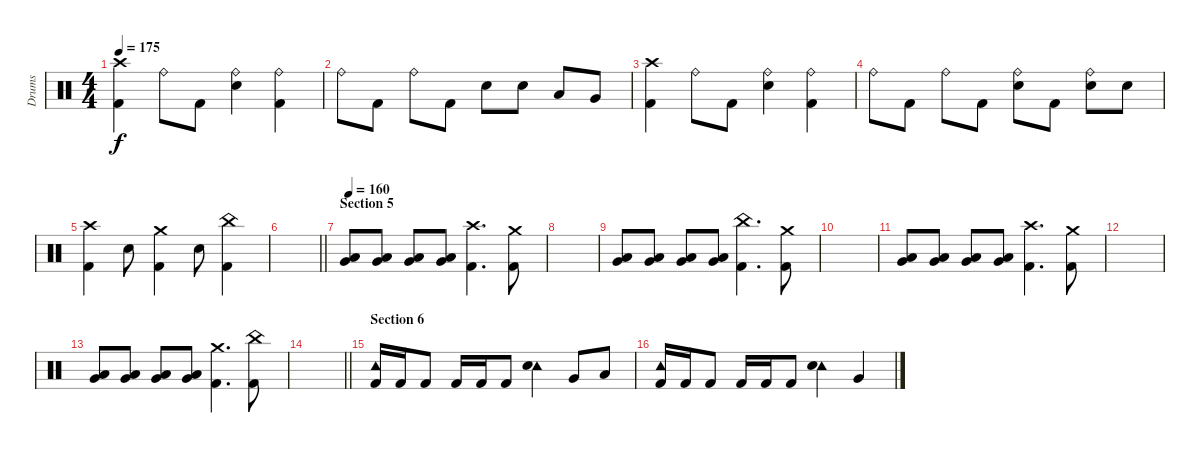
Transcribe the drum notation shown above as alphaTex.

\track ("Drums" "Drums") {instrument percussion}
\staff {score}
\articulation defaults
\ts (4 4)
\tempo 175
\clef neutral
\ks c
("Crash high (hit)" "Kick (hit) 2").4{dy f} "Ride (bell)".8 "Kick (hit) 2".8 ("Ride (bell)" "Snare (hit) 2").4 ("Ride (bell)" "Kick (hit) 2").4 |
"Ride (bell)".8 "Kick (hit) 2".8 "Ride (bell)".8 "Kick (hit) 2".8 "Snare (hit) 2".8 "Snare (hit) 2".8 "Low Tom (hit)".8 "Very Low Tom (hit)".8 |
("Crash high (hit)" "Kick (hit) 2").4 "Ride (bell)".8 "Kick (hit) 2".8 ("Ride (bell)" "Snare (hit) 2").4 ("Ride (bell)" "Kick (hit) 2").4 |
"Ride (bell)".8 "Kick (hit) 2".8 "Ride (bell)".8 "Kick (hit) 2".8 ("Ride (bell)" "Snare (hit) 2").8 "Kick (hit) 2".8 ("Ride (bell)" "Snare (hit) 2").8 "Snare (hit) 2".8 |
("Crash high (hit)" "Kick (hit) 2").4 "Snare (hit) 2".8 ("Crash medium (hit)" "Kick (hit) 2").4 "Snare (hit) 2".8 ("China (hit)" "Kick (hit) 2").4 |
\barLineRight lightlight
|
\section ("" "Section 5")
\tempo 160
("Very Low Tom (hit)" "Low Floor Tom (hit)").8 ("Very Low Tom (hit)" "Low Floor Tom (hit)").8 ("Very Low Tom (hit)" "Low Floor Tom (hit)").8 ("Very Low Tom (hit)" "Low Floor Tom (hit)").8 ("Crash high (hit)" "Kick (hit) 2").4{d} ("Crash medium (hit)" "Kick (hit) 2").8 |
|
("Very Low Tom (hit)" "Low Floor Tom (hit)").8 ("Very Low Tom (hit)" "Low Floor Tom (hit)").8 ("Very Low Tom (hit)" "Low Floor Tom (hit)").8 ("Very Low Tom (hit)" "Low Floor Tom (hit)").8 ("China (hit)" "Kick (hit) 2").4{d} ("Crash medium (hit)" "Kick (hit) 2").8 |
|
("Very Low Tom (hit)" "Low Floor Tom (hit)").8 ("Very Low Tom (hit)" "Low Floor Tom (hit)").8 ("Very Low Tom (hit)" "Low Floor Tom (hit)").8 ("Very Low Tom (hit)" "Low Floor Tom (hit)").8 ("Crash high (hit)" "Kick (hit) 2").4{d} ("Crash medium (hit)" "Kick (hit) 2").8 |
|
("Very Low Tom (hit)" "Low Floor Tom (hit)").8 ("Very Low Tom (hit)" "Low Floor Tom (hit)").8 ("Very Low Tom (hit)" "Low Floor Tom (hit)").8 ("Very Low Tom (hit)" "Low Floor Tom (hit)").8 ("Crash medium (hit)" "Kick (hit) 2").4{d} ("China (hit)" "Kick (hit) 2").8 |
\barLineRight lightlight
|
\section ("" "Section 6")
("Tambourine (hit)" "Kick (hit) 2").16 "Kick (hit) 2".16 "Kick (hit) 2".8 "Kick (hit) 2".16 "Kick (hit) 2".16 "Kick (hit) 2".8 ("Tambourine (hit)" "Snare (hit) 2").4 "Very Low Tom (hit)".8 "Low Tom (hit)".8 |
("Tambourine (hit)" "Kick (hit) 2").16 "Kick (hit) 2".16 "Kick (hit) 2".8 "Kick (hit) 2".16 "Kick (hit) 2".16 "Kick (hit) 2".8 ("Tambourine (hit)" "Snare (hit) 2").4 "Very Low Tom (hit)".4
